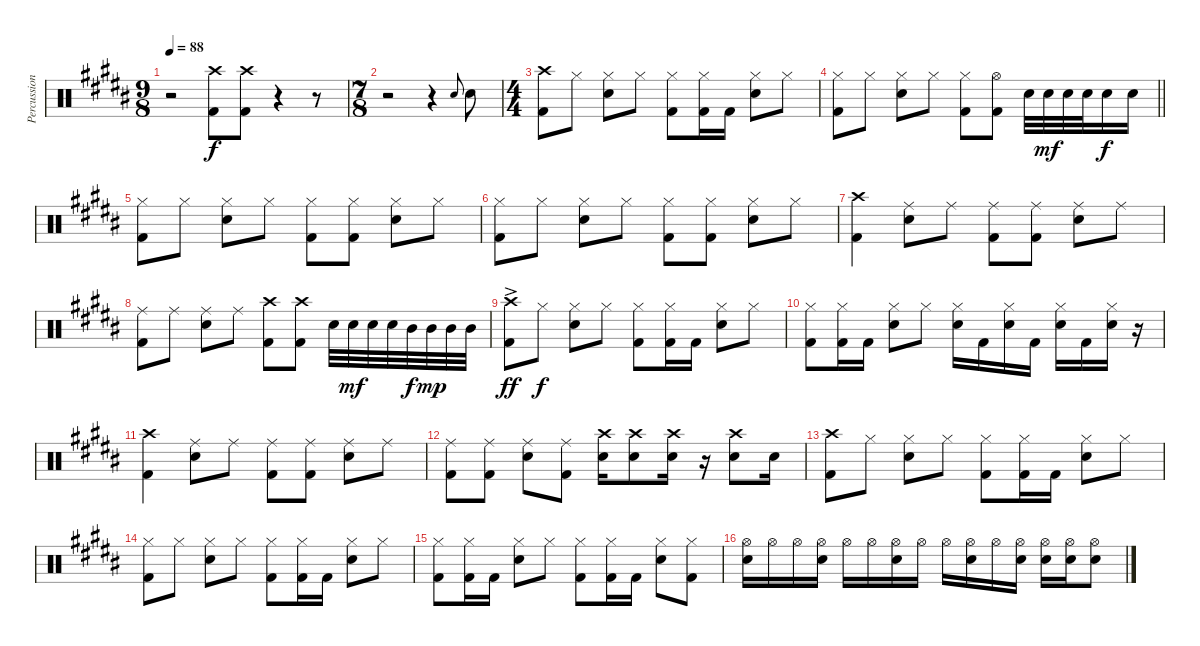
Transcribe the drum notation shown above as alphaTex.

\track ("Percussion" "Percussion") {instrument percussion}
\staff {score}
\articulation defaults
\ts (9 8)
\tempo 88
\clef neutral
\ks b
r.2{dy f} ("Crash high (hit)" "Kick (hit) 2").8 ("Crash high (hit)" "Kick (hit) 2").8 r.4 r.8 |
\ts (7 8)
r.2 r.4 "Snare (hit) 2".8{gr onbeat} "Snare (hit) 2".8 |
\ts (4 4)
("Crash high (hit)" "Kick (hit) 2").8 "Hi-Hat (closed)".8 ("Hi-Hat (closed)" "Snare (hit) 2").8 "Hi-Hat (closed)".8 ("Hi-Hat (closed)" "Kick (hit) 2").8 ("Hi-Hat (closed)" "Kick (hit) 2").16 "Kick (hit) 2".16 ("Hi-Hat (closed)" "Snare (hit) 2").8 "Hi-Hat (closed)".8 |
\barLineRight lightlight
("Hi-Hat (closed)" "Kick (hit) 2").8 "Hi-Hat (closed)".8 ("Hi-Hat (closed)" "Snare (hit) 2").8 "Hi-Hat (closed)".8 ("Hi-Hat (closed)" "Kick (hit) 2").8 ("Hi-Hat (open)" "Kick (hit) 2").8 "Snare (hit) 2".32 "Snare (hit) 2".32{dy mf} "Snare (hit) 2".32 "Snare (hit) 2".32 "Snare (hit) 2".16{dy f} "Snare (hit) 2".16 |
("Hi-Hat (closed)" "Kick (hit) 2").8 "Hi-Hat (closed)".8 ("Hi-Hat (closed)" "Snare (hit) 2").8 "Hi-Hat (closed)".8 ("Hi-Hat (closed)" "Kick (hit) 2").8 ("Hi-Hat (closed)" "Kick (hit) 2").8 ("Hi-Hat (closed)" "Snare (hit) 2").8 "Hi-Hat (closed)".8 |
("Hi-Hat (closed)" "Kick (hit) 2").8 "Hi-Hat (closed)".8 ("Hi-Hat (closed)" "Snare (hit) 2").8 "Hi-Hat (closed)".8 ("Hi-Hat (closed)" "Kick (hit) 2").8 ("Hi-Hat (closed)" "Kick (hit) 2").8 ("Hi-Hat (closed)" "Snare (hit) 2").8 "Hi-Hat (closed)".8 |
("Crash high (hit)" "Kick (hit) 2").4 ("Ride (middle)" "Snare (hit) 2").8 "Ride (middle)".8 ("Ride (middle)" "Kick (hit) 2").8 ("Ride (middle)" "Kick (hit) 2").8 ("Ride (middle)" "Snare (hit) 2").8 "Ride (middle)".8 |
("Ride (middle)" "Kick (hit) 2").8 "Ride (middle)".8 ("Ride (middle)" "Snare (hit) 2").8 "Ride (middle)".8 ("Crash high (hit)" "Kick (hit) 2").8 ("Crash high (hit)" "Kick (hit) 2").8 "Snare (hit) 2".32 "Snare (hit) 2".32{dy mf} "Snare (hit) 2".32 "Snare (hit) 2".32 "Mid Tom (hit)".32{dy f} "Mid Tom (hit)".32{dy mp} "Mid Tom (hit)".32 "Mid Tom (hit)".32 |
("Crash high (hit)"{ac} "Kick (hit) 2"{ac}).8{dy ff} "Hi-Hat (closed)".8{dy f} ("Hi-Hat (closed)" "Snare (hit) 2").8 "Hi-Hat (closed)".8 ("Hi-Hat (closed)" "Kick (hit) 2").8 ("Hi-Hat (closed)" "Kick (hit) 2").16 "Kick (hit) 2".16 ("Hi-Hat (closed)" "Snare (hit) 2").8 "Hi-Hat (closed)".8 |
("Hi-Hat (closed)" "Kick (hit) 2").8 ("Hi-Hat (closed)" "Kick (hit) 2").16 "Kick (hit) 2".16 ("Hi-Hat (closed)" "Snare (hit) 2").8 "Hi-Hat (closed)".8 ("Hi-Hat (closed)" "Snare (hit) 2").16 "Kick (hit) 2".16 ("Hi-Hat (closed)" "Snare (hit) 2").16 "Kick (hit) 2".16 ("Hi-Hat (closed)" "Snare (hit) 2").16 "Kick (hit) 2".16 ("Hi-Hat (closed)" "Snare (hit) 2").16 r.16 |
("Crash high (hit)" "Kick (hit) 2").4 ("Ride (middle)" "Snare (hit) 2").8 "Ride (middle)".8 ("Ride (middle)" "Kick (hit) 2").8 ("Ride (middle)" "Kick (hit) 2").8 ("Ride (middle)" "Snare (hit) 2").8 "Ride (middle)".8 |
("Ride (middle)" "Kick (hit) 2").8 ("Ride (middle)" "Kick (hit) 2").8 ("Ride (middle)" "Snare (hit) 2").8 ("Ride (middle)" "Kick (hit) 2").8 ("Crash high (hit)" "Snare (hit) 2").16 ("Crash high (hit)" "Snare (hit) 2").8 ("Crash high (hit)" "Snare (hit) 2").16 r.16 ("Crash high (hit)" "Snare (hit) 2").8 "Snare (hit) 2".16 |
("Crash high (hit)" "Kick (hit) 2").8 "Hi-Hat (closed)".8 ("Hi-Hat (closed)" "Snare (hit) 2").8 "Hi-Hat (closed)".8 ("Hi-Hat (closed)" "Kick (hit) 2").8 ("Hi-Hat (closed)" "Kick (hit) 2").16 "Kick (hit) 2".16 ("Hi-Hat (closed)" "Snare (hit) 2").8 "Hi-Hat (closed)".8 |
("Hi-Hat (closed)" "Kick (hit) 2").8 "Hi-Hat (closed)".8 ("Hi-Hat (closed)" "Snare (hit) 2").8 "Hi-Hat (closed)".8 ("Hi-Hat (closed)" "Kick (hit) 2").8 ("Hi-Hat (closed)" "Kick (hit) 2").16 "Kick (hit) 2".16 ("Hi-Hat (closed)" "Snare (hit) 2").8 "Hi-Hat (closed)".8 |
("Hi-Hat (closed)" "Kick (hit) 2").8 ("Hi-Hat (closed)" "Kick (hit) 2").16 "Kick (hit) 2".16 ("Hi-Hat (closed)" "Snare (hit) 2").8 "Hi-Hat (closed)".8 ("Hi-Hat (closed)" "Kick (hit) 2").8 ("Hi-Hat (closed)" "Kick (hit) 2").16 "Kick (hit) 2".16 ("Hi-Hat (closed)" "Snare (hit) 2").8 ("Hi-Hat (closed)" "Kick (hit) 2").8 |
("Hi-Hat (open)" "Snare (hit) 2").16 "Hi-Hat (open)".16 "Hi-Hat (open)".16 ("Hi-Hat (open)" "Snare (hit) 2").16 "Hi-Hat (open)".16 "Hi-Hat (open)".16 ("Hi-Hat (open)" "Snare (hit) 2").16 "Hi-Hat (open)".16 "Hi-Hat (open)".16 ("Hi-Hat (open)" "Snare (hit) 2").16 "Hi-Hat (open)".16 ("Hi-Hat (open)" "Snare (hit) 2").16 ("Hi-Hat (open)" "Snare (hit) 2").16 ("Hi-Hat (open)" "Snare (hit) 2").16 ("Hi-Hat (open)" "Snare (hit) 2").8
